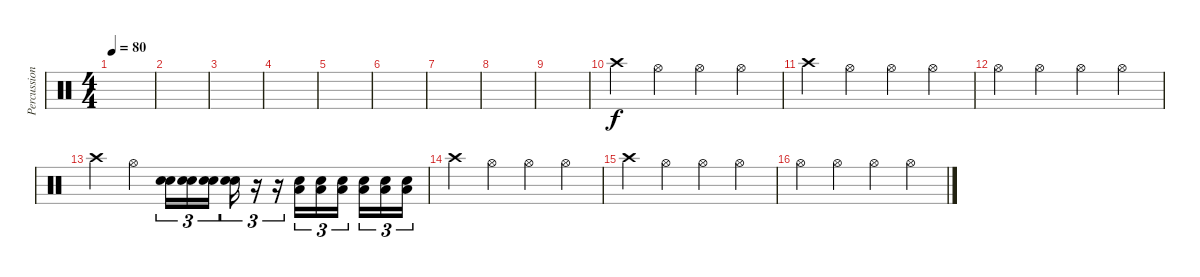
\track ("Percussion" "Percussion") {instrument percussion}
\staff {score}
\articulation defaults
\ts (4 4)
\tempo 80
\clef neutral
\ks c
|
|
|
|
|
|
|
|
|
"Crash high (hit)".4 "Hi-Hat (open)".4 "Hi-Hat (open)".4 "Hi-Hat (open)".4 |
"Crash high (hit)".4 "Hi-Hat (open)".4 "Hi-Hat (open)".4 "Hi-Hat (open)".4 |
"Hi-Hat (open)".4 "Hi-Hat (open)".4 "Hi-Hat (open)".4 "Hi-Hat (open)".4 |
"Crash high (hit)".4 "Hi-Hat (open)".4 ("Snare (hit) 2" "Electric Snare (hit)").16{tu (3 2)} ("Snare (hit) 2" "Electric Snare (hit)").16{tu (3 2)} ("Snare (hit) 2" "Electric Snare (hit)").16{tu (3 2) beam splitsecondary} ("Snare (hit) 2" "Electric Snare (hit)").16{tu (3 2)} r.16{tu (3 2)} r.16{tu (3 2)} ("Low Floor Tom (hit)" "Electric Snare (hit)").16{tu (3 2)} ("Low Floor Tom (hit)" "Electric Snare (hit)").16{tu (3 2)} ("Low Floor Tom (hit)" "Electric Snare (hit)").16{tu (3 2) beam splitsecondary} ("Low Floor Tom (hit)" "Electric Snare (hit)").16{tu (3 2)} ("Low Floor Tom (hit)" "Electric Snare (hit)").16{tu (3 2)} ("Low Floor Tom (hit)" "Electric Snare (hit)").16{tu (3 2)} |
"Crash high (hit)".4 "Hi-Hat (open)".4 "Hi-Hat (open)".4 "Hi-Hat (open)".4 |
"Crash high (hit)".4 "Hi-Hat (open)".4 "Hi-Hat (open)".4 "Hi-Hat (open)".4 |
"Hi-Hat (open)".4 "Hi-Hat (open)".4 "Hi-Hat (open)".4 "Hi-Hat (open)".4
